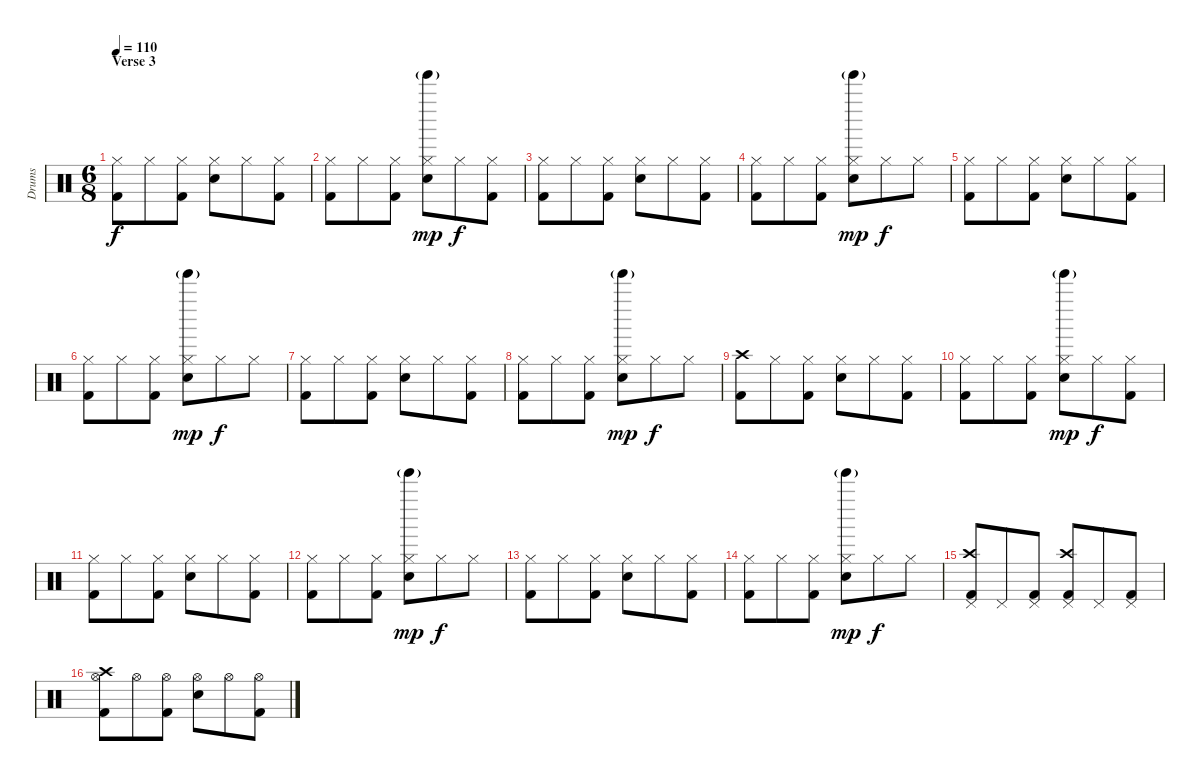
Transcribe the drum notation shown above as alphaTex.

\track ("Drums" "Drums") {instrument percussion}
\staff {score}
\articulation defaults
\ts (6 8)
\section ("" "Verse 3")
\tempo 110
\clef neutral
\ks c
("Hi-Hat (closed)" "Kick (hit) 2").8{dy f} "Hi-Hat (closed)".8 ("Hi-Hat (closed)" "Kick (hit) 2").8 ("Hi-Hat (closed)" "Snare (hit) 2").8 "Hi-Hat (closed)".8 ("Hi-Hat (closed)" "Kick (hit) 2").8 |
("Hi-Hat (closed)" "Kick (hit) 2").8 "Hi-Hat (closed)".8 ("Hi-Hat (closed)" "Kick (hit) 2").8 ("Hi-Hat (closed)" "Tinkle Bell (hit)"{g} "Snare (hit) 2").8{dy mp} "Hi-Hat (closed)".8{dy f} ("Hi-Hat (closed)" "Kick (hit) 2").8 |
("Hi-Hat (closed)" "Kick (hit) 2").8 "Hi-Hat (closed)".8 ("Hi-Hat (closed)" "Kick (hit) 2").8 ("Hi-Hat (closed)" "Snare (hit) 2").8 "Hi-Hat (closed)".8 ("Hi-Hat (closed)" "Kick (hit) 2").8 |
("Hi-Hat (closed)" "Kick (hit) 2").8 "Hi-Hat (closed)".8 ("Hi-Hat (closed)" "Kick (hit) 2").8 ("Hi-Hat (closed)" "Tinkle Bell (hit)"{g} "Snare (hit) 2").8{dy mp} "Hi-Hat (closed)".8{dy f} "Hi-Hat (closed)".8 |
("Hi-Hat (closed)" "Kick (hit) 2").8 "Hi-Hat (closed)".8 ("Hi-Hat (closed)" "Kick (hit) 2").8 ("Hi-Hat (closed)" "Snare (hit) 2").8 "Hi-Hat (closed)".8 ("Hi-Hat (closed)" "Kick (hit) 2").8 |
("Hi-Hat (closed)" "Kick (hit) 2").8 "Hi-Hat (closed)".8 ("Hi-Hat (closed)" "Kick (hit) 2").8 ("Hi-Hat (closed)" "Tinkle Bell (hit)"{g} "Snare (hit) 2").8{dy mp} "Hi-Hat (closed)".8{dy f} "Hi-Hat (closed)".8 |
("Hi-Hat (closed)" "Kick (hit) 2").8 "Hi-Hat (closed)".8 ("Hi-Hat (closed)" "Kick (hit) 2").8 ("Hi-Hat (closed)" "Snare (hit) 2").8 "Hi-Hat (closed)".8 ("Hi-Hat (closed)" "Kick (hit) 2").8 |
("Hi-Hat (closed)" "Kick (hit) 2").8 "Hi-Hat (closed)".8 ("Hi-Hat (closed)" "Kick (hit) 2").8 ("Hi-Hat (closed)" "Tinkle Bell (hit)"{g} "Snare (hit) 2").8{dy mp} "Hi-Hat (closed)".8{dy f} "Hi-Hat (closed)".8 |
("Crash high (hit)" "Kick (hit) 2").8 "Hi-Hat (closed)".8 ("Hi-Hat (closed)" "Kick (hit) 2").8 ("Hi-Hat (closed)" "Snare (hit) 2").8 "Hi-Hat (closed)".8 ("Hi-Hat (closed)" "Kick (hit) 2").8 |
("Hi-Hat (closed)" "Kick (hit) 2").8 "Hi-Hat (closed)".8 ("Hi-Hat (closed)" "Kick (hit) 2").8 ("Hi-Hat (closed)" "Tinkle Bell (hit)"{g} "Snare (hit) 2").8{dy mp} "Hi-Hat (closed)".8{dy f} ("Hi-Hat (closed)" "Kick (hit) 2").8 |
("Hi-Hat (closed)" "Kick (hit) 2").8 "Hi-Hat (closed)".8 ("Hi-Hat (closed)" "Kick (hit) 2").8 ("Hi-Hat (closed)" "Snare (hit) 2").8 "Hi-Hat (closed)".8 ("Hi-Hat (closed)" "Kick (hit) 2").8 |
("Hi-Hat (closed)" "Kick (hit) 2").8 "Hi-Hat (closed)".8 ("Hi-Hat (closed)" "Kick (hit) 2").8 ("Hi-Hat (closed)" "Tinkle Bell (hit)"{g} "Snare (hit) 2").8{dy mp} "Hi-Hat (closed)".8{dy f} "Hi-Hat (closed)".8 |
("Hi-Hat (closed)" "Kick (hit) 2").8 "Hi-Hat (closed)".8 ("Hi-Hat (closed)" "Kick (hit) 2").8 ("Hi-Hat (closed)" "Snare (hit) 2").8 "Hi-Hat (closed)".8 ("Hi-Hat (closed)" "Kick (hit) 2").8 |
("Hi-Hat (closed)" "Kick (hit) 2").8 "Hi-Hat (closed)".8 ("Hi-Hat (closed)" "Kick (hit) 2").8 ("Hi-Hat (closed)" "Tinkle Bell (hit)"{g} "Snare (hit) 2").8{dy mp} "Hi-Hat (closed)".8{dy f} "Hi-Hat (closed)".8 |
("Crash high (hit)" "Pedal Hi-Hat (hit)" "Kick (hit) 2").8 "Pedal Hi-Hat (hit)".8 ("Pedal Hi-Hat (hit)" "Kick (hit) 2").8 ("Crash high (hit)" "Pedal Hi-Hat (hit)" "Kick (hit) 2").8 "Pedal Hi-Hat (hit)".8 ("Pedal Hi-Hat (hit)" "Kick (hit) 2").8 |
("Crash high (hit)" "Hi-Hat (open)" "Kick (hit) 2").8 "Hi-Hat (open)".8 ("Hi-Hat (open)" "Kick (hit) 2").8 ("Hi-Hat (open)" "Snare (hit) 2").8 "Hi-Hat (open)".8 ("Hi-Hat (open)" "Kick (hit) 2").8
